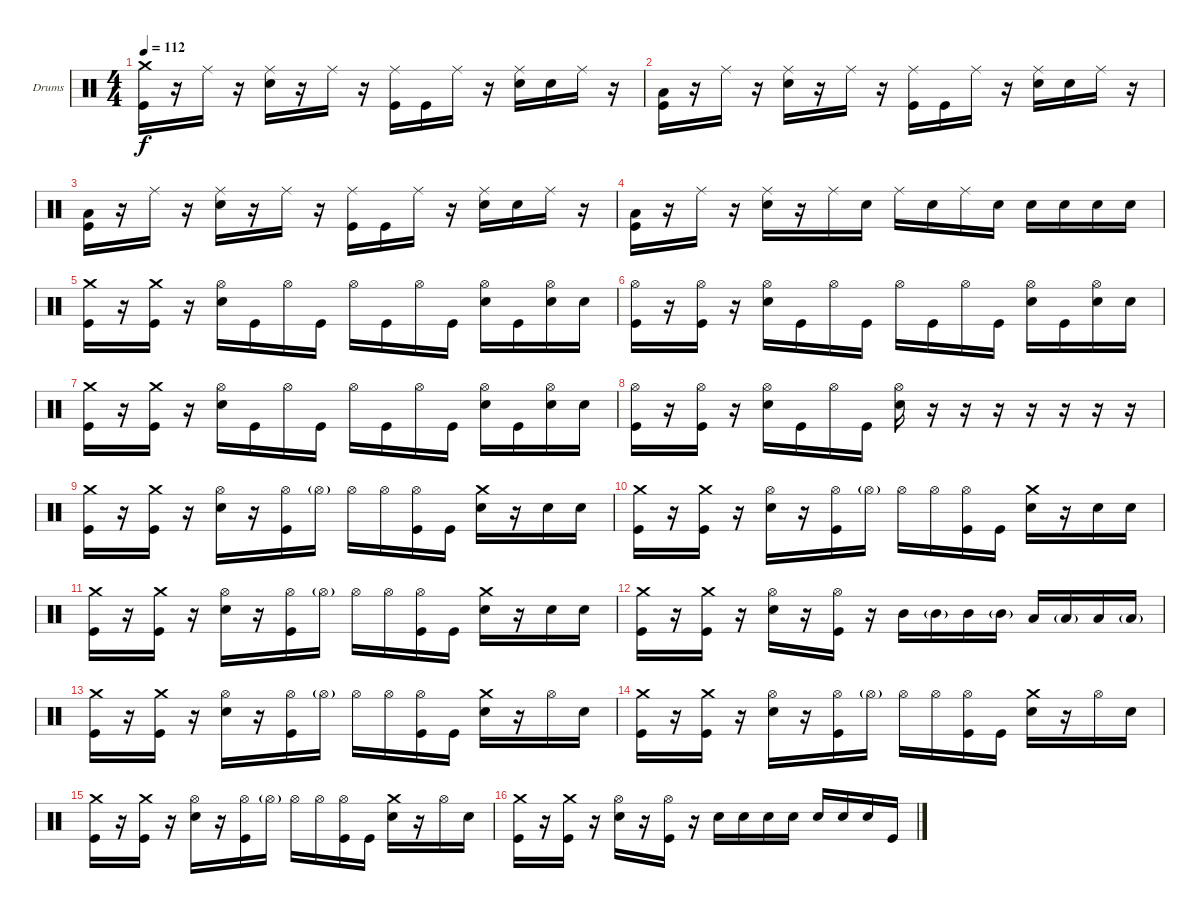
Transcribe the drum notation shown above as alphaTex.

\bracketExtendMode groupsimilarinstruments
\firstSystemTrackNameOrientation horizontal
\otherSystemsTrackNameOrientation horizontal
\track ("Drumkit" "Drums") {instrument percussion}
\staff {score}
\articulation defaults
\ts (4 4)
\tempo 112
\clef neutral
\ks c
("Crash medium (hit)" "Kick (hit)").16{dy f} r.16 "Ride (middle)".16 r.16 ("Ride (middle)" "Snare (hit) 2").16 r.16 "Ride (middle)".16 r.16 ("Ride (middle)" "Kick (hit)").16 "Kick (hit)".16 "Ride (middle)".16 r.16 ("Ride (middle)" "Snare (hit) 2").16 "Snare (hit) 2".16 "Ride (middle)".16 r.16 |
("Low Tom (hit)" "Kick (hit)").16 r.16 "Ride (middle)".16 r.16 ("Ride (middle)" "Snare (hit) 2").16 r.16 "Ride (middle)".16 r.16 ("Ride (middle)" "Kick (hit)").16 "Kick (hit)".16 "Ride (middle)".16 r.16 ("Ride (middle)" "Snare (hit) 2").16 "Snare (hit) 2".16 "Ride (middle)".16 r.16 |
("Low Tom (hit)" "Kick (hit)").16 r.16 "Ride (middle)".16 r.16 ("Ride (middle)" "Snare (hit) 2").16 r.16 "Ride (middle)".16 r.16 ("Ride (middle)" "Kick (hit)").16 "Kick (hit)".16 "Ride (middle)".16 r.16 ("Ride (middle)" "Snare (hit) 2").16 "Snare (hit) 2".16 "Ride (middle)".16 r.16 |
("Low Tom (hit)" "Kick (hit)").16 r.16 "Ride (middle)".16 r.16 ("Ride (middle)" "Snare (hit) 2").16 r.16 "Ride (middle)".16 "Snare (hit) 2".16 "Ride (middle)".16 "Snare (hit) 2".16 "Ride (middle)".16 "Snare (hit) 2".16 "Snare (hit) 2".16 "Snare (hit) 2".16 "Snare (hit) 2".16 "Snare (hit) 2".16 |
("Crash medium (hit)" "Kick (hit)").16 r.16 ("Crash medium (hit)" "Kick (hit)").16 r.16 ("Hi-Hat (open)" "Snare (hit) 2").16 "Kick (hit)".16 "Hi-Hat (open)".16 "Kick (hit)".16 "Hi-Hat (open)".16 "Kick (hit)".16 "Hi-Hat (open)".16 "Kick (hit)".16 ("Hi-Hat (open)" "Snare (hit) 2").16 "Kick (hit)".16 ("Hi-Hat (open)" "Snare (hit) 2").16 "Snare (hit) 2".16 |
("Hi-Hat (open)" "Kick (hit)").16 r.16 ("Hi-Hat (open)" "Kick (hit)").16 r.16 ("Hi-Hat (open)" "Snare (hit) 2").16 "Kick (hit)".16 "Hi-Hat (open)".16 "Kick (hit)".16 "Hi-Hat (open)".16 "Kick (hit)".16 "Hi-Hat (open)".16 "Kick (hit)".16 ("Hi-Hat (open)" "Snare (hit) 2").16 "Kick (hit)".16 ("Hi-Hat (open)" "Snare (hit) 2").16 "Snare (hit) 2".16 |
("Crash medium (hit)" "Kick (hit)").16 r.16 ("Crash medium (hit)" "Kick (hit)").16 r.16 ("Hi-Hat (open)" "Snare (hit) 2").16 "Kick (hit)".16 "Hi-Hat (open)".16 "Kick (hit)".16 "Hi-Hat (open)".16 "Kick (hit)".16 "Hi-Hat (open)".16 "Kick (hit)".16 ("Hi-Hat (open)" "Snare (hit) 2").16 "Kick (hit)".16 ("Hi-Hat (open)" "Snare (hit) 2").16 "Snare (hit) 2".16 |
("Hi-Hat (open)" "Kick (hit)").16 r.16 ("Hi-Hat (open)" "Kick (hit)").16 r.16 ("Hi-Hat (open)" "Snare (hit) 2").16 "Kick (hit)".16 "Hi-Hat (open)".16 "Kick (hit)".16 ("Hi-Hat (open)" "Snare (hit) 2").16 r.16 r.16 r.16 r.16 r.16 r.16 r.16 |
("Crash medium (hit)" "Kick (hit)").16 r.16 ("Crash medium (hit)" "Kick (hit)").16 r.16 ("Hi-Hat (open)" "Snare (hit) 2").16 r.16 ("Hi-Hat (open)" "Kick (hit)").16 "Hi-Hat (open)"{g}.16 "Hi-Hat (open)".16 "Hi-Hat (open)".16 ("Hi-Hat (open)" "Kick (hit)").16 "Kick (hit)".16 ("Crash medium (hit)" "Snare (hit) 2").16 r.16 "Snare (hit) 2".16 "Snare (hit) 2".16 |
("Crash medium (hit)" "Kick (hit)").16 r.16 ("Crash medium (hit)" "Kick (hit)").16 r.16 ("Hi-Hat (open)" "Snare (hit) 2").16 r.16 ("Hi-Hat (open)" "Kick (hit)").16 "Hi-Hat (open)"{g}.16 "Hi-Hat (open)".16 "Hi-Hat (open)".16 ("Hi-Hat (open)" "Kick (hit)").16 "Kick (hit)".16 ("Crash medium (hit)" "Snare (hit) 2").16 r.16 "Snare (hit) 2".16 "Snare (hit) 2".16 |
("Crash medium (hit)" "Kick (hit)").16 r.16 ("Crash medium (hit)" "Kick (hit)").16 r.16 ("Hi-Hat (open)" "Snare (hit) 2").16 r.16 ("Hi-Hat (open)" "Kick (hit)").16 "Hi-Hat (open)"{g}.16 "Hi-Hat (open)".16 "Hi-Hat (open)".16 ("Hi-Hat (open)" "Kick (hit)").16 "Kick (hit)".16 ("Crash medium (hit)" "Snare (hit) 2").16 r.16 "Snare (hit) 2".16 "Snare (hit) 2".16 |
("Crash medium (hit)" "Kick (hit)").16 r.16 ("Crash medium (hit)" "Kick (hit)").16 r.16 ("Hi-Hat (open)" "Snare (hit) 2").16 r.16 ("Hi-Hat (open)" "Kick (hit)").16 r.16 "Mid Tom (hit)".16 "Mid Tom (hit)"{g}.16 "Mid Tom (hit)".16 "Mid Tom (hit)"{g}.16 "Low Tom (hit)".16 "Low Tom (hit)"{g}.16 "Low Tom (hit)".16 "Low Tom (hit)"{g}.16 |
("Crash medium (hit)" "Kick (hit)").16 r.16 ("Crash medium (hit)" "Kick (hit)").16 r.16 ("Hi-Hat (open)" "Snare (hit) 2").16 r.16 ("Hi-Hat (open)" "Kick (hit)").16 "Hi-Hat (open)"{g}.16 "Hi-Hat (open)".16 "Hi-Hat (open)".16 ("Hi-Hat (open)" "Kick (hit)").16 "Kick (hit)".16 ("Crash medium (hit)" "Snare (hit) 2").16 r.16 "Hi-Hat (open)".16 "Snare (hit) 2".16 |
("Crash medium (hit)" "Kick (hit)").16 r.16 ("Crash medium (hit)" "Kick (hit)").16 r.16 ("Hi-Hat (open)" "Snare (hit) 2").16 r.16 ("Hi-Hat (open)" "Kick (hit)").16 "Hi-Hat (open)"{g}.16 "Hi-Hat (open)".16 "Hi-Hat (open)".16 ("Hi-Hat (open)" "Kick (hit)").16 "Kick (hit)".16 ("Crash medium (hit)" "Snare (hit) 2").16 r.16 "Hi-Hat (open)".16 "Snare (hit) 2".16 |
("Crash medium (hit)" "Kick (hit)").16 r.16 ("Crash medium (hit)" "Kick (hit)").16 r.16 ("Hi-Hat (open)" "Snare (hit) 2").16 r.16 ("Hi-Hat (open)" "Kick (hit)").16 "Hi-Hat (open)"{g}.16 "Hi-Hat (open)".16 "Hi-Hat (open)".16 ("Hi-Hat (open)" "Kick (hit)").16 "Kick (hit)".16 ("Crash medium (hit)" "Snare (hit) 2").16 r.16 "Hi-Hat (open)".16 "Snare (hit) 2".16 |
("Crash medium (hit)" "Kick (hit)").16 r.16 ("Crash medium (hit)" "Kick (hit)").16 r.16 ("Hi-Hat (open)" "Snare (hit) 2").16 r.16 ("Hi-Hat (open)" "Kick (hit)").16 r.16 "Snare (hit) 2".16 "Snare (hit) 2".16 "Snare (hit) 2".16 "Snare (hit) 2".16 "Snare (hit) 2".16 "Snare (hit) 2".16 "Snare (hit) 2".16 "Kick (hit)".16
